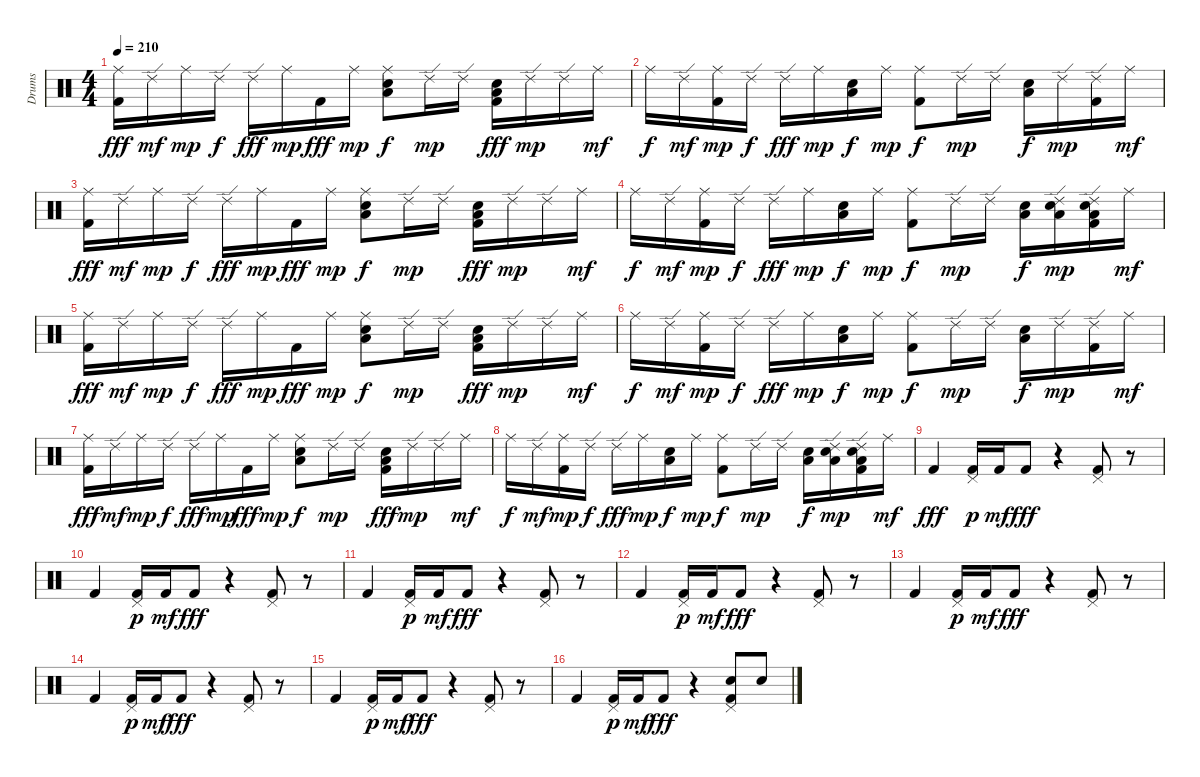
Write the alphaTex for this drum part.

\track ("Drums" "Drums") {instrument percussion}
\staff {score}
\articulation defaults
\ts (4 4)
\tempo 210
\clef neutral
\ks c
("Ride (middle)" "Kick (hit) 2").16{dy fff} "Ride (edge) 2".16{dy mf} "Ride (middle)".16{dy mp} "Ride (edge) 2".16{dy f} "Ride (edge) 2".16{dy fff} "Ride (middle)".16{dy mp} "Kick (hit) 2".16{dy fff} "Ride (middle)".16{dy mp} ("Ride (middle)" "Low Tom (hit)" "Electric Snare (hit)").8{dy f} "Ride (edge) 2".16{dy mp} "Ride (edge) 2".16 ("Low Tom (hit)" "Electric Snare (hit)" "Kick (hit) 2").16{dy fff} "Ride (edge) 2".16{dy mp} "Ride (edge) 2".16 "Ride (middle)".16{dy mf} |
"Ride (middle)".16{dy f} "Ride (edge) 2".16{dy mf} ("Ride (middle)" "Kick (hit) 2").16{dy mp} "Ride (edge) 2".16{dy f} "Ride (edge) 2".16{dy fff} "Ride (middle)".16{dy mp} ("Low Tom (hit)" "Electric Snare (hit)").16{dy f} "Ride (middle)".16{dy mp} ("Ride (middle)" "Kick (hit) 2").8{dy f} "Ride (edge) 2".16{dy mp} "Ride (edge) 2".16 ("Low Tom (hit)" "Electric Snare (hit)").16{dy f} "Ride (edge) 2".16{dy mp} ("Ride (edge) 2" "Kick (hit) 2").16 "Ride (middle)".16{dy mf} |
("Ride (middle)" "Kick (hit) 2").16{dy fff} "Ride (edge) 2".16{dy mf} "Ride (middle)".16{dy mp} "Ride (edge) 2".16{dy f} "Ride (edge) 2".16{dy fff} "Ride (middle)".16{dy mp} "Kick (hit) 2".16{dy fff} "Ride (middle)".16{dy mp} ("Ride (middle)" "Low Tom (hit)" "Electric Snare (hit)").8{dy f} "Ride (edge) 2".16{dy mp} "Ride (edge) 2".16 ("Low Tom (hit)" "Electric Snare (hit)" "Kick (hit) 2").16{dy fff} "Ride (edge) 2".16{dy mp} "Ride (edge) 2".16 "Ride (middle)".16{dy mf} |
"Ride (middle)".16{dy f} "Ride (edge) 2".16{dy mf} ("Ride (middle)" "Kick (hit) 2").16{dy mp} "Ride (edge) 2".16{dy f} "Ride (edge) 2".16{dy fff} "Ride (middle)".16{dy mp} ("Low Tom (hit)" "Electric Snare (hit)").16{dy f} "Ride (middle)".16{dy mp} ("Ride (middle)" "Kick (hit) 2").8{dy f} "Ride (edge) 2".16{dy mp} "Ride (edge) 2".16 ("Low Tom (hit)" "Electric Snare (hit)").16{dy f} ("Ride (edge) 2" "Low Tom (hit)" "Electric Snare (hit)").16{dy mp} ("Ride (edge) 2" "Low Tom (hit)" "Electric Snare (hit)" "Kick (hit) 2").16 "Ride (middle)".16{dy mf} |
("Ride (middle)" "Kick (hit) 2").16{dy fff} "Ride (edge) 2".16{dy mf} "Ride (middle)".16{dy mp} "Ride (edge) 2".16{dy f} "Ride (edge) 2".16{dy fff} "Ride (middle)".16{dy mp} "Kick (hit) 2".16{dy fff} "Ride (middle)".16{dy mp} ("Ride (middle)" "Low Tom (hit)" "Electric Snare (hit)").8{dy f} "Ride (edge) 2".16{dy mp} "Ride (edge) 2".16 ("Low Tom (hit)" "Electric Snare (hit)" "Kick (hit) 2").16{dy fff} "Ride (edge) 2".16{dy mp} "Ride (edge) 2".16 "Ride (middle)".16{dy mf} |
"Ride (middle)".16{dy f} "Ride (edge) 2".16{dy mf} ("Ride (middle)" "Kick (hit) 2").16{dy mp} "Ride (edge) 2".16{dy f} "Ride (edge) 2".16{dy fff} "Ride (middle)".16{dy mp} ("Low Tom (hit)" "Electric Snare (hit)").16{dy f} "Ride (middle)".16{dy mp} ("Ride (middle)" "Kick (hit) 2").8{dy f} "Ride (edge) 2".16{dy mp} "Ride (edge) 2".16 ("Low Tom (hit)" "Electric Snare (hit)").16{dy f} "Ride (edge) 2".16{dy mp} ("Ride (edge) 2" "Kick (hit) 2").16 "Ride (middle)".16{dy mf} |
("Ride (middle)" "Kick (hit) 2").16{dy fff} "Ride (edge) 2".16{dy mf} "Ride (middle)".16{dy mp} "Ride (edge) 2".16{dy f} "Ride (edge) 2".16{dy fff} "Ride (middle)".16{dy mp} "Kick (hit) 2".16{dy fff} "Ride (middle)".16{dy mp} ("Ride (middle)" "Low Tom (hit)" "Electric Snare (hit)").8{dy f} "Ride (edge) 2".16{dy mp} "Ride (edge) 2".16 ("Low Tom (hit)" "Electric Snare (hit)" "Kick (hit) 2").16{dy fff} "Ride (edge) 2".16{dy mp} "Ride (edge) 2".16 "Ride (middle)".16{dy mf} |
"Ride (middle)".16{dy f} "Ride (edge) 2".16{dy mf} ("Ride (middle)" "Kick (hit) 2").16{dy mp} "Ride (edge) 2".16{dy f} "Ride (edge) 2".16{dy fff} "Ride (middle)".16{dy mp} ("Low Tom (hit)" "Electric Snare (hit)").16{dy f} "Ride (middle)".16{dy mp} ("Ride (middle)" "Kick (hit) 2").8{dy f} "Ride (edge) 2".16{dy mp} "Ride (edge) 2".16 ("Low Tom (hit)" "Electric Snare (hit)").16{dy f} ("Ride (edge) 2" "Low Tom (hit)" "Electric Snare (hit)").16{dy mp} ("Ride (edge) 2" "Low Tom (hit)" "Electric Snare (hit)" "Kick (hit) 2").16 "Ride (middle)".16{dy mf} |
"Kick (hit) 2".4{dy fff} ("Pedal Hi-Hat (hit)" "Kick (hit) 2").16{dy p} "Kick (hit) 2".16{dy mf} "Kick (hit) 2".8{dy fff} r.4 ("Pedal Hi-Hat (hit)" "Kick (hit) 2").8 r.8 |
"Kick (hit) 2".4 ("Pedal Hi-Hat (hit)" "Kick (hit) 2").16{dy p} "Kick (hit) 2".16{dy mf} "Kick (hit) 2".8{dy fff} r.4 ("Pedal Hi-Hat (hit)" "Kick (hit) 2").8 r.8 |
"Kick (hit) 2".4 ("Pedal Hi-Hat (hit)" "Kick (hit) 2").16{dy p} "Kick (hit) 2".16{dy mf} "Kick (hit) 2".8{dy fff} r.4 ("Pedal Hi-Hat (hit)" "Kick (hit) 2").8 r.8 |
"Kick (hit) 2".4 ("Pedal Hi-Hat (hit)" "Kick (hit) 2").16{dy p} "Kick (hit) 2".16{dy mf} "Kick (hit) 2".8{dy fff} r.4 ("Pedal Hi-Hat (hit)" "Kick (hit) 2").8 r.8 |
"Kick (hit) 2".4 ("Pedal Hi-Hat (hit)" "Kick (hit) 2").16{dy p} "Kick (hit) 2".16{dy mf} "Kick (hit) 2".8{dy fff} r.4 ("Pedal Hi-Hat (hit)" "Kick (hit) 2").8 r.8 |
"Kick (hit) 2".4 ("Pedal Hi-Hat (hit)" "Kick (hit) 2").16{dy p} "Kick (hit) 2".16{dy mf} "Kick (hit) 2".8{dy fff} r.4 ("Pedal Hi-Hat (hit)" "Kick (hit) 2").8 r.8 |
"Kick (hit) 2".4 ("Pedal Hi-Hat (hit)" "Kick (hit) 2").16{dy p} "Kick (hit) 2".16{dy mf} "Kick (hit) 2".8{dy fff} r.4 ("Pedal Hi-Hat (hit)" "Kick (hit) 2").8 r.8 |
"Kick (hit) 2".4 ("Pedal Hi-Hat (hit)" "Kick (hit) 2").16{dy p} "Kick (hit) 2".16{dy mf} "Kick (hit) 2".8{dy fff} r.4 ("Pedal Hi-Hat (hit)" "Electric Snare (hit)" "Kick (hit) 2").8 "Electric Snare (hit)".8
